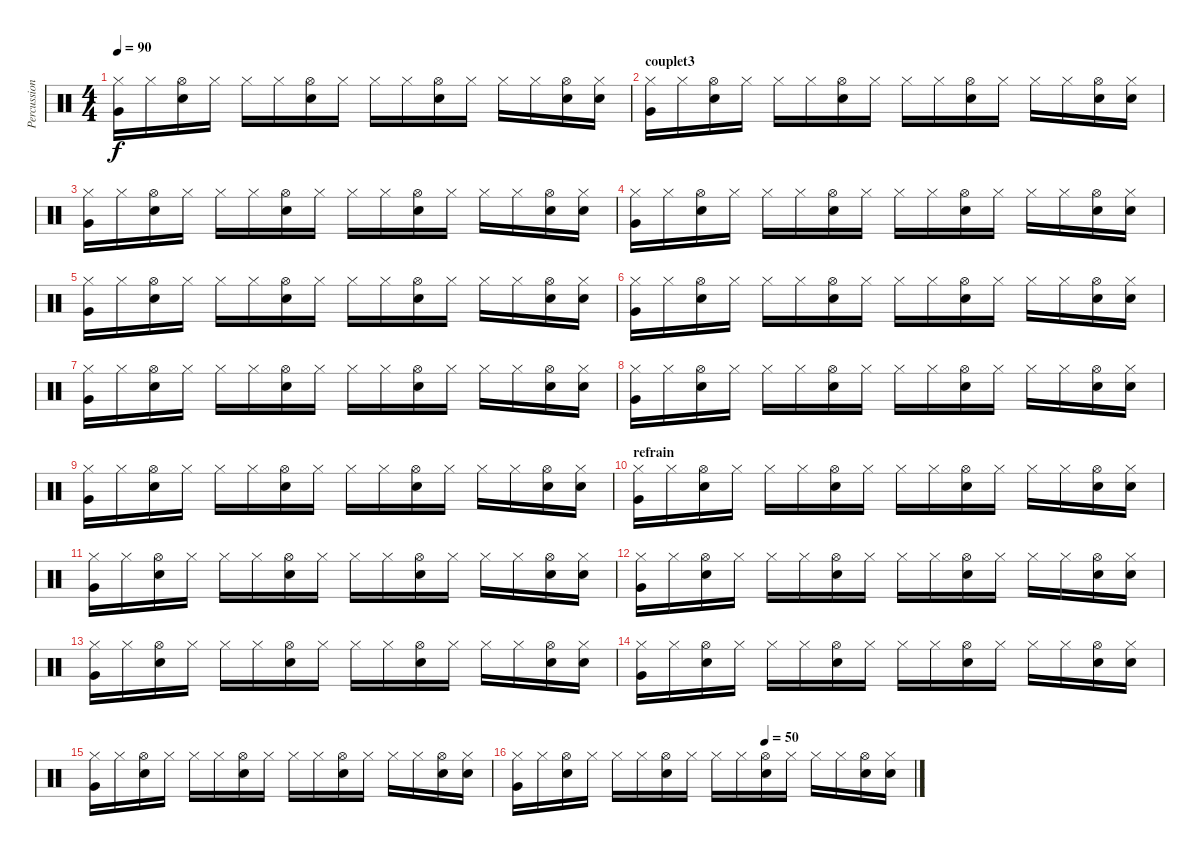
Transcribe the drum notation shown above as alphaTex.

\track ("Percussions" "Percussion") {instrument percussion}
\staff {score}
\articulation defaults
\ts (4 4)
\tempo 90
\clef neutral
\ks aminor
("Hi-Hat (closed)" "Very Low Tom (hit)").16{dy f} "Hi-Hat (closed)".16 ("Snare (hit) 2" "Hi-Hat (open)").16 "Hi-Hat (closed)".16 "Hi-Hat (closed)".16 "Hi-Hat (closed)".16 ("Snare (hit) 2" "Hi-Hat (open)").16 "Hi-Hat (closed)".16 "Hi-Hat (closed)".16 "Hi-Hat (closed)".16 ("Snare (hit) 2" "Hi-Hat (open)").16 "Hi-Hat (closed)".16 "Hi-Hat (closed)".16 "Hi-Hat (closed)".16 ("Snare (hit) 2" "Hi-Hat (open)").16 ("Snare (hit) 2" "Hi-Hat (closed)").16 |
\section ("" "couplet3")
("Hi-Hat (closed)" "Very Low Tom (hit)").16 "Hi-Hat (closed)".16 ("Snare (hit) 2" "Hi-Hat (open)").16 "Hi-Hat (closed)".16 "Hi-Hat (closed)".16 "Hi-Hat (closed)".16 ("Snare (hit) 2" "Hi-Hat (open)").16 "Hi-Hat (closed)".16 "Hi-Hat (closed)".16 "Hi-Hat (closed)".16 ("Snare (hit) 2" "Hi-Hat (open)").16 "Hi-Hat (closed)".16 "Hi-Hat (closed)".16 "Hi-Hat (closed)".16 ("Snare (hit) 2" "Hi-Hat (open)").16 ("Snare (hit) 2" "Hi-Hat (closed)").16 |
("Hi-Hat (closed)" "Very Low Tom (hit)").16 "Hi-Hat (closed)".16 ("Snare (hit) 2" "Hi-Hat (open)").16 "Hi-Hat (closed)".16 "Hi-Hat (closed)".16 "Hi-Hat (closed)".16 ("Snare (hit) 2" "Hi-Hat (open)").16 "Hi-Hat (closed)".16 "Hi-Hat (closed)".16 "Hi-Hat (closed)".16 ("Snare (hit) 2" "Hi-Hat (open)").16 "Hi-Hat (closed)".16 "Hi-Hat (closed)".16 "Hi-Hat (closed)".16 ("Snare (hit) 2" "Hi-Hat (open)").16 ("Snare (hit) 2" "Hi-Hat (closed)").16 |
("Hi-Hat (closed)" "Very Low Tom (hit)").16 "Hi-Hat (closed)".16 ("Snare (hit) 2" "Hi-Hat (open)").16 "Hi-Hat (closed)".16 "Hi-Hat (closed)".16 "Hi-Hat (closed)".16 ("Snare (hit) 2" "Hi-Hat (open)").16 "Hi-Hat (closed)".16 "Hi-Hat (closed)".16 "Hi-Hat (closed)".16 ("Snare (hit) 2" "Hi-Hat (open)").16 "Hi-Hat (closed)".16 "Hi-Hat (closed)".16 "Hi-Hat (closed)".16 ("Snare (hit) 2" "Hi-Hat (open)").16 ("Snare (hit) 2" "Hi-Hat (closed)").16 |
("Hi-Hat (closed)" "Very Low Tom (hit)").16 "Hi-Hat (closed)".16 ("Snare (hit) 2" "Hi-Hat (open)").16 "Hi-Hat (closed)".16 "Hi-Hat (closed)".16 "Hi-Hat (closed)".16 ("Snare (hit) 2" "Hi-Hat (open)").16 "Hi-Hat (closed)".16 "Hi-Hat (closed)".16 "Hi-Hat (closed)".16 ("Snare (hit) 2" "Hi-Hat (open)").16 "Hi-Hat (closed)".16 "Hi-Hat (closed)".16 "Hi-Hat (closed)".16 ("Snare (hit) 2" "Hi-Hat (open)").16 ("Snare (hit) 2" "Hi-Hat (closed)").16 |
("Hi-Hat (closed)" "Very Low Tom (hit)").16 "Hi-Hat (closed)".16 ("Snare (hit) 2" "Hi-Hat (open)").16 "Hi-Hat (closed)".16 "Hi-Hat (closed)".16 "Hi-Hat (closed)".16 ("Snare (hit) 2" "Hi-Hat (open)").16 "Hi-Hat (closed)".16 "Hi-Hat (closed)".16 "Hi-Hat (closed)".16 ("Snare (hit) 2" "Hi-Hat (open)").16 "Hi-Hat (closed)".16 "Hi-Hat (closed)".16 "Hi-Hat (closed)".16 ("Snare (hit) 2" "Hi-Hat (open)").16 ("Snare (hit) 2" "Hi-Hat (closed)").16 |
("Hi-Hat (closed)" "Very Low Tom (hit)").16 "Hi-Hat (closed)".16 ("Snare (hit) 2" "Hi-Hat (open)").16 "Hi-Hat (closed)".16 "Hi-Hat (closed)".16 "Hi-Hat (closed)".16 ("Snare (hit) 2" "Hi-Hat (open)").16 "Hi-Hat (closed)".16 "Hi-Hat (closed)".16 "Hi-Hat (closed)".16 ("Snare (hit) 2" "Hi-Hat (open)").16 "Hi-Hat (closed)".16 "Hi-Hat (closed)".16 "Hi-Hat (closed)".16 ("Snare (hit) 2" "Hi-Hat (open)").16 ("Snare (hit) 2" "Hi-Hat (closed)").16 |
("Hi-Hat (closed)" "Very Low Tom (hit)").16 "Hi-Hat (closed)".16 ("Snare (hit) 2" "Hi-Hat (open)").16 "Hi-Hat (closed)".16 "Hi-Hat (closed)".16 "Hi-Hat (closed)".16 ("Snare (hit) 2" "Hi-Hat (open)").16 "Hi-Hat (closed)".16 "Hi-Hat (closed)".16 "Hi-Hat (closed)".16 ("Snare (hit) 2" "Hi-Hat (open)").16 "Hi-Hat (closed)".16 "Hi-Hat (closed)".16 "Hi-Hat (closed)".16 ("Snare (hit) 2" "Hi-Hat (open)").16 ("Snare (hit) 2" "Hi-Hat (closed)").16 |
("Hi-Hat (closed)" "Very Low Tom (hit)").16 "Hi-Hat (closed)".16 ("Snare (hit) 2" "Hi-Hat (open)").16 "Hi-Hat (closed)".16 "Hi-Hat (closed)".16 "Hi-Hat (closed)".16 ("Snare (hit) 2" "Hi-Hat (open)").16 "Hi-Hat (closed)".16 "Hi-Hat (closed)".16 "Hi-Hat (closed)".16 ("Snare (hit) 2" "Hi-Hat (open)").16 "Hi-Hat (closed)".16 "Hi-Hat (closed)".16 "Hi-Hat (closed)".16 ("Snare (hit) 2" "Hi-Hat (open)").16 ("Snare (hit) 2" "Hi-Hat (closed)").16 |
\section ("" "refrain")
("Hi-Hat (closed)" "Very Low Tom (hit)").16 "Hi-Hat (closed)".16 ("Snare (hit) 2" "Hi-Hat (open)").16 "Hi-Hat (closed)".16 "Hi-Hat (closed)".16 "Hi-Hat (closed)".16 ("Snare (hit) 2" "Hi-Hat (open)").16 "Hi-Hat (closed)".16 "Hi-Hat (closed)".16 "Hi-Hat (closed)".16 ("Snare (hit) 2" "Hi-Hat (open)").16 "Hi-Hat (closed)".16 "Hi-Hat (closed)".16 "Hi-Hat (closed)".16 ("Snare (hit) 2" "Hi-Hat (open)").16 ("Snare (hit) 2" "Hi-Hat (closed)").16 |
("Hi-Hat (closed)" "Very Low Tom (hit)").16 "Hi-Hat (closed)".16 ("Snare (hit) 2" "Hi-Hat (open)").16 "Hi-Hat (closed)".16 "Hi-Hat (closed)".16 "Hi-Hat (closed)".16 ("Snare (hit) 2" "Hi-Hat (open)").16 "Hi-Hat (closed)".16 "Hi-Hat (closed)".16 "Hi-Hat (closed)".16 ("Snare (hit) 2" "Hi-Hat (open)").16 "Hi-Hat (closed)".16 "Hi-Hat (closed)".16 "Hi-Hat (closed)".16 ("Snare (hit) 2" "Hi-Hat (open)").16 ("Snare (hit) 2" "Hi-Hat (closed)").16 |
("Hi-Hat (closed)" "Very Low Tom (hit)").16 "Hi-Hat (closed)".16 ("Snare (hit) 2" "Hi-Hat (open)").16 "Hi-Hat (closed)".16 "Hi-Hat (closed)".16 "Hi-Hat (closed)".16 ("Snare (hit) 2" "Hi-Hat (open)").16 "Hi-Hat (closed)".16 "Hi-Hat (closed)".16 "Hi-Hat (closed)".16 ("Snare (hit) 2" "Hi-Hat (open)").16 "Hi-Hat (closed)".16 "Hi-Hat (closed)".16 "Hi-Hat (closed)".16 ("Snare (hit) 2" "Hi-Hat (open)").16 ("Snare (hit) 2" "Hi-Hat (closed)").16 |
("Hi-Hat (closed)" "Very Low Tom (hit)").16 "Hi-Hat (closed)".16 ("Snare (hit) 2" "Hi-Hat (open)").16 "Hi-Hat (closed)".16 "Hi-Hat (closed)".16 "Hi-Hat (closed)".16 ("Snare (hit) 2" "Hi-Hat (open)").16 "Hi-Hat (closed)".16 "Hi-Hat (closed)".16 "Hi-Hat (closed)".16 ("Snare (hit) 2" "Hi-Hat (open)").16 "Hi-Hat (closed)".16 "Hi-Hat (closed)".16 "Hi-Hat (closed)".16 ("Snare (hit) 2" "Hi-Hat (open)").16 ("Snare (hit) 2" "Hi-Hat (closed)").16 |
("Hi-Hat (closed)" "Very Low Tom (hit)").16 "Hi-Hat (closed)".16 ("Snare (hit) 2" "Hi-Hat (open)").16 "Hi-Hat (closed)".16 "Hi-Hat (closed)".16 "Hi-Hat (closed)".16 ("Snare (hit) 2" "Hi-Hat (open)").16 "Hi-Hat (closed)".16 "Hi-Hat (closed)".16 "Hi-Hat (closed)".16 ("Snare (hit) 2" "Hi-Hat (open)").16 "Hi-Hat (closed)".16 "Hi-Hat (closed)".16 "Hi-Hat (closed)".16 ("Snare (hit) 2" "Hi-Hat (open)").16 ("Snare (hit) 2" "Hi-Hat (closed)").16 |
("Hi-Hat (closed)" "Very Low Tom (hit)").16 "Hi-Hat (closed)".16 ("Snare (hit) 2" "Hi-Hat (open)").16 "Hi-Hat (closed)".16 "Hi-Hat (closed)".16 "Hi-Hat (closed)".16 ("Snare (hit) 2" "Hi-Hat (open)").16 "Hi-Hat (closed)".16 "Hi-Hat (closed)".16 "Hi-Hat (closed)".16 ("Snare (hit) 2" "Hi-Hat (open)").16 "Hi-Hat (closed)".16 "Hi-Hat (closed)".16 "Hi-Hat (closed)".16 ("Snare (hit) 2" "Hi-Hat (open)").16 ("Snare (hit) 2" "Hi-Hat (closed)").16 |
\tempo (50 0.625)
("Hi-Hat (closed)" "Very Low Tom (hit)").16 "Hi-Hat (closed)".16 ("Snare (hit) 2" "Hi-Hat (open)").16 "Hi-Hat (closed)".16 "Hi-Hat (closed)".16 "Hi-Hat (closed)".16 ("Snare (hit) 2" "Hi-Hat (open)").16 "Hi-Hat (closed)".16 "Hi-Hat (closed)".16 "Hi-Hat (closed)".16 ("Snare (hit) 2" "Hi-Hat (open)").16 "Hi-Hat (closed)".16 "Hi-Hat (closed)".16 "Hi-Hat (closed)".16 ("Snare (hit) 2" "Hi-Hat (open)").16 ("Snare (hit) 2" "Hi-Hat (closed)").16
